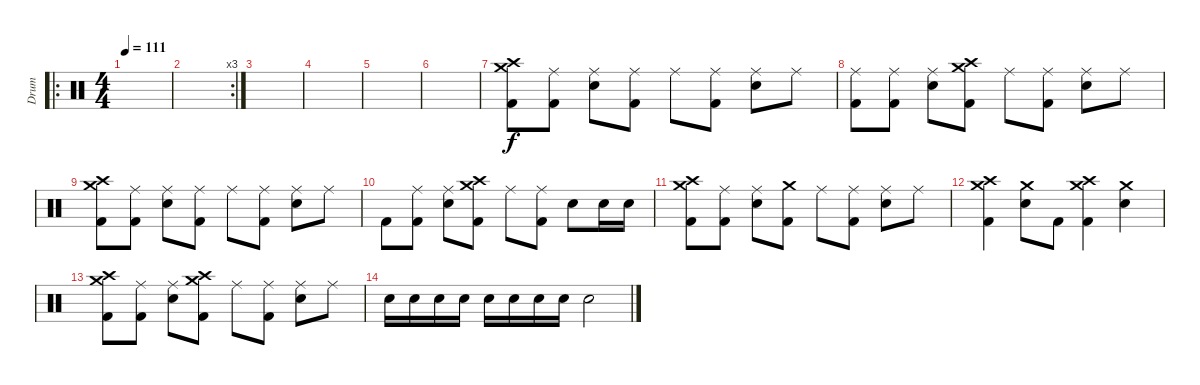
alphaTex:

\track ("Drum" "Drum") {instrument percussion}
\staff {score}
\articulation defaults
\ro
\ts (4 4)
\tempo 111
\clef neutral
\ks c
|
\rc 3
|
|
|
|
|
("Crash high (hit)" "Crash medium (hit)" "Kick (hit) 2").8 ("Ride (middle)" "Kick (hit) 2").8 ("Ride (middle)" "Snare (hit) 2").8 ("Ride (middle)" "Kick (hit) 2").8 "Ride (middle)".8 ("Ride (middle)" "Kick (hit) 2").8 ("Ride (middle)" "Snare (hit) 2").8 "Ride (middle)".8 |
("Ride (middle)" "Kick (hit) 2").8 ("Ride (middle)" "Kick (hit) 2").8 ("Ride (middle)" "Snare (hit) 2").8 ("Crash high (hit)" "Crash medium (hit)" "Kick (hit) 2").8 "Ride (middle)".8 ("Ride (middle)" "Kick (hit) 2").8 ("Ride (middle)" "Snare (hit) 2").8 "Ride (middle)".8 |
("Crash high (hit)" "Crash medium (hit)" "Kick (hit) 2").8 ("Ride (middle)" "Kick (hit) 2").8 ("Ride (middle)" "Snare (hit) 2").8 ("Ride (middle)" "Kick (hit) 2").8 "Ride (middle)".8 ("Ride (middle)" "Kick (hit) 2").8 ("Ride (middle)" "Snare (hit) 2").8 "Ride (middle)".8 |
"Kick (hit) 2".8 ("Ride (middle)" "Kick (hit) 2").8 ("Ride (middle)" "Snare (hit) 2").8 ("Crash high (hit)" "Crash medium (hit)" "Kick (hit) 2").8 "Ride (middle)".8 ("Ride (middle)" "Kick (hit) 2").8 "Snare (hit) 2".8 "Snare (hit) 2".16 "Snare (hit) 2".16 |
("Crash high (hit)" "Crash medium (hit)" "Kick (hit) 2").8 ("Ride (middle)" "Kick (hit) 2").8 ("Ride (middle)" "Snare (hit) 2").8 ("Crash medium (hit)" "Kick (hit) 2").8 "Ride (middle)".8 ("Ride (middle)" "Kick (hit) 2").8 ("Ride (middle)" "Snare (hit) 2").8 "Ride (middle)".8 |
("Crash high (hit)" "Crash medium (hit)" "Kick (hit) 2").4 ("Crash medium (hit)" "Snare (hit) 2").8 "Kick (hit) 2".8 ("Crash high (hit)" "Crash medium (hit)" "Kick (hit) 2").4 ("Crash medium (hit)" "Snare (hit) 2").4 |
("Crash high (hit)" "Crash medium (hit)" "Kick (hit) 2").8 ("Ride (middle)" "Kick (hit) 2").8 ("Ride (middle)" "Snare (hit) 2").8 ("Crash high (hit)" "Crash medium (hit)" "Kick (hit) 2").8 "Ride (middle)".8 ("Ride (middle)" "Kick (hit) 2").8 ("Ride (middle)" "Snare (hit) 2").8 "Ride (middle)".8 |
"Snare (hit) 2".16 "Snare (hit) 2".16 "Snare (hit) 2".16 "Snare (hit) 2".16 "Snare (hit) 2".16 "Snare (hit) 2".16 "Snare (hit) 2".16 "Snare (hit) 2".16 "Snare (hit) 2".2
